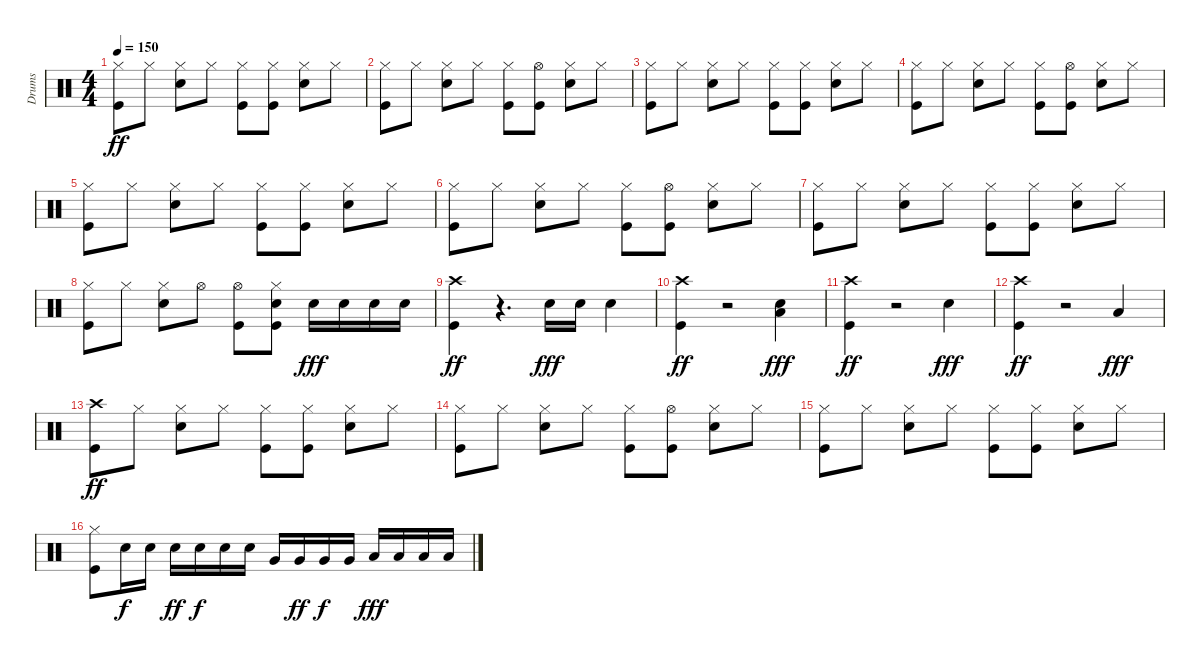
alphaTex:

\track ("Drums" "Drums") {instrument percussion}
\staff {score}
\articulation defaults
\ts (4 4)
\tempo 150
\clef neutral
\ks c
("Hi-Hat (closed)" "Kick (hit)").8{dy ff} "Hi-Hat (closed)".8 ("Hi-Hat (closed)" "Snare (hit) 2").8 "Hi-Hat (closed)".8 ("Hi-Hat (closed)" "Kick (hit)").8 ("Hi-Hat (closed)" "Kick (hit)").8 ("Hi-Hat (closed)" "Snare (hit) 2").8 "Hi-Hat (closed)".8 |
("Hi-Hat (closed)" "Kick (hit)").8 "Hi-Hat (closed)".8 ("Hi-Hat (closed)" "Snare (hit) 2").8 "Hi-Hat (closed)".8 ("Hi-Hat (closed)" "Kick (hit)").8 ("Hi-Hat (open)" "Kick (hit)").8 ("Hi-Hat (closed)" "Snare (hit) 2").8 "Hi-Hat (closed)".8 |
("Hi-Hat (closed)" "Kick (hit)").8 "Hi-Hat (closed)".8 ("Hi-Hat (closed)" "Snare (hit) 2").8 "Hi-Hat (closed)".8 ("Hi-Hat (closed)" "Kick (hit)").8 ("Hi-Hat (closed)" "Kick (hit)").8 ("Hi-Hat (closed)" "Snare (hit) 2").8 "Hi-Hat (closed)".8 |
("Hi-Hat (closed)" "Kick (hit)").8 "Hi-Hat (closed)".8 ("Hi-Hat (closed)" "Snare (hit) 2").8 "Hi-Hat (closed)".8 ("Hi-Hat (closed)" "Kick (hit)").8 ("Hi-Hat (open)" "Kick (hit)").8 ("Hi-Hat (closed)" "Snare (hit) 2").8 "Hi-Hat (closed)".8 |
("Hi-Hat (closed)" "Kick (hit)").8 "Hi-Hat (closed)".8 ("Hi-Hat (closed)" "Snare (hit) 2").8 "Hi-Hat (closed)".8 ("Hi-Hat (closed)" "Kick (hit)").8 ("Hi-Hat (closed)" "Kick (hit)").8 ("Hi-Hat (closed)" "Snare (hit) 2").8 "Hi-Hat (closed)".8 |
("Hi-Hat (closed)" "Kick (hit)").8 "Hi-Hat (closed)".8 ("Hi-Hat (closed)" "Snare (hit) 2").8 "Hi-Hat (closed)".8 ("Hi-Hat (closed)" "Kick (hit)").8 ("Hi-Hat (open)" "Kick (hit)").8 ("Hi-Hat (closed)" "Snare (hit) 2").8 "Hi-Hat (closed)".8 |
("Hi-Hat (closed)" "Kick (hit)").8 "Hi-Hat (closed)".8 ("Hi-Hat (closed)" "Snare (hit) 2").8 "Hi-Hat (closed)".8 ("Hi-Hat (closed)" "Kick (hit)").8 ("Hi-Hat (closed)" "Kick (hit)").8 ("Hi-Hat (closed)" "Snare (hit) 2").8 "Hi-Hat (closed)".8 |
("Hi-Hat (closed)" "Kick (hit)").8 "Hi-Hat (closed)".8 ("Hi-Hat (closed)" "Snare (hit) 2").8 "Hi-Hat (open)".8 ("Hi-Hat (open)" "Kick (hit)").8 ("Hi-Hat (closed)" "Snare (hit) 2" "Kick (hit)").8 "Snare (hit) 2".16{dy fff} "Snare (hit) 2".16 "Snare (hit) 2".16 "Snare (hit) 2".16 |
("Crash high (hit)" "Kick (hit)").4{dy ff} r.4{d} "Snare (hit) 2".16{dy fff} "Snare (hit) 2".16 "Snare (hit) 2".4 |
("Crash high (hit)" "Kick (hit)").4{dy ff} r.2 ("Low Floor Tom (hit)" "Snare (hit) 2").4{dy fff} |
("Crash high (hit)" "Kick (hit)").4{dy ff} r.2 "Snare (hit) 2".4{dy fff} |
("Crash high (hit)" "Kick (hit)").4{dy ff} r.2 "Low Tom (hit)".4{dy fff} |
("Crash high (hit)" "Kick (hit)").8{dy ff} "Hi-Hat (closed)".8 ("Hi-Hat (closed)" "Snare (hit) 2").8 "Hi-Hat (closed)".8 ("Hi-Hat (closed)" "Kick (hit)").8 ("Hi-Hat (closed)" "Kick (hit)").8 ("Hi-Hat (closed)" "Snare (hit) 2").8 "Hi-Hat (closed)".8 |
("Hi-Hat (closed)" "Kick (hit)").8 "Hi-Hat (closed)".8 ("Hi-Hat (closed)" "Snare (hit) 2").8 "Hi-Hat (closed)".8 ("Hi-Hat (closed)" "Kick (hit)").8 ("Hi-Hat (open)" "Kick (hit)").8 ("Hi-Hat (closed)" "Snare (hit) 2").8 "Hi-Hat (closed)".8 |
("Hi-Hat (closed)" "Kick (hit)").8 "Hi-Hat (closed)".8 ("Hi-Hat (closed)" "Snare (hit) 2").8 "Hi-Hat (closed)".8 ("Hi-Hat (closed)" "Kick (hit)").8 ("Hi-Hat (closed)" "Kick (hit)").8 ("Hi-Hat (closed)" "Snare (hit) 2").8 "Hi-Hat (closed)".8 |
("Hi-Hat (closed)" "Kick (hit)").8 "Snare (hit) 2".16{dy f} "Snare (hit) 2".16 "Snare (hit) 2".16{dy ff} "Snare (hit) 2".16{dy f} "Snare (hit) 2".16 "Snare (hit) 2".16 "Very Low Tom (hit)".16 "Very Low Tom (hit)".16{dy ff} "Very Low Tom (hit)".16{dy f} "Very Low Tom (hit)".16 "Low Floor Tom (hit)".16{dy fff} "Low Floor Tom (hit)".16 "Low Floor Tom (hit)".16 "Low Floor Tom (hit)".16
